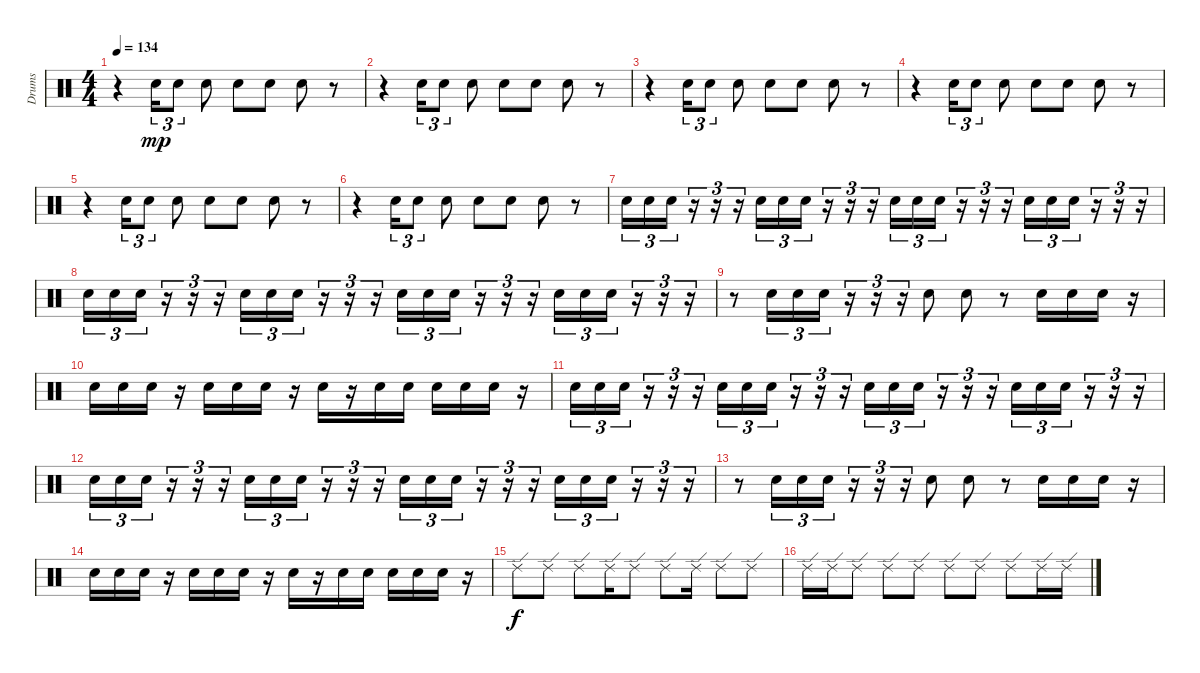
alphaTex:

\track ("Drums" "Drums") {instrument percussion}
\staff {score}
\articulation defaults
\ts (4 4)
\tempo 134
\clef neutral
\ks c
r.4{dy mp} "Snare (hit) 2".16{tu (3 2)} "Snare (hit) 2".8{tu (3 2)} "Snare (hit) 2".8 "Snare (hit) 2".8 "Snare (hit) 2".8 "Snare (hit) 2".8 r.8 |
r.4 "Snare (hit) 2".16{tu (3 2)} "Snare (hit) 2".8{tu (3 2)} "Snare (hit) 2".8 "Snare (hit) 2".8 "Snare (hit) 2".8 "Snare (hit) 2".8 r.8 |
r.4 "Snare (hit) 2".16{tu (3 2)} "Snare (hit) 2".8{tu (3 2)} "Snare (hit) 2".8 "Snare (hit) 2".8 "Snare (hit) 2".8 "Snare (hit) 2".8 r.8 |
r.4 "Snare (hit) 2".16{tu (3 2)} "Snare (hit) 2".8{tu (3 2)} "Snare (hit) 2".8 "Snare (hit) 2".8 "Snare (hit) 2".8 "Snare (hit) 2".8 r.8 |
r.4 "Snare (hit) 2".16{tu (3 2)} "Snare (hit) 2".8{tu (3 2)} "Snare (hit) 2".8 "Snare (hit) 2".8 "Snare (hit) 2".8 "Snare (hit) 2".8 r.8 |
r.4 "Snare (hit) 2".16{tu (3 2)} "Snare (hit) 2".8{tu (3 2)} "Snare (hit) 2".8 "Snare (hit) 2".8 "Snare (hit) 2".8 "Snare (hit) 2".8 r.8 |
"Snare (hit) 2".16{tu (3 2)} "Snare (hit) 2".16{tu (3 2)} "Snare (hit) 2".16{tu (3 2)} r.16{tu (3 2)} r.16{tu (3 2)} r.16{tu (3 2)} "Electric Snare (hit)".16{tu (3 2)} "Electric Snare (hit)".16{tu (3 2)} "Electric Snare (hit)".16{tu (3 2)} r.16{tu (3 2)} r.16{tu (3 2)} r.16{tu (3 2)} "Snare (hit) 2".16{tu (3 2)} "Snare (hit) 2".16{tu (3 2)} "Snare (hit) 2".16{tu (3 2)} r.16{tu (3 2)} r.16{tu (3 2)} r.16{tu (3 2)} "Electric Snare (hit)".16{tu (3 2)} "Electric Snare (hit)".16{tu (3 2)} "Electric Snare (hit)".16{tu (3 2)} r.16{tu (3 2)} r.16{tu (3 2)} r.16{tu (3 2)} |
"Snare (hit) 2".16{tu (3 2)} "Snare (hit) 2".16{tu (3 2)} "Snare (hit) 2".16{tu (3 2)} r.16{tu (3 2)} r.16{tu (3 2)} r.16{tu (3 2)} "Electric Snare (hit)".16{tu (3 2)} "Electric Snare (hit)".16{tu (3 2)} "Electric Snare (hit)".16{tu (3 2)} r.16{tu (3 2)} r.16{tu (3 2)} r.16{tu (3 2)} "Snare (hit) 2".16{tu (3 2)} "Snare (hit) 2".16{tu (3 2)} "Snare (hit) 2".16{tu (3 2)} r.16{tu (3 2)} r.16{tu (3 2)} r.16{tu (3 2)} "Electric Snare (hit)".16{tu (3 2)} "Electric Snare (hit)".16{tu (3 2)} "Electric Snare (hit)".16{tu (3 2)} r.16{tu (3 2)} r.16{tu (3 2)} r.16{tu (3 2)} |
r.8 "Snare (hit) 2".16{tu (3 2)} "Snare (hit) 2".16{tu (3 2)} "Snare (hit) 2".16{tu (3 2)} r.16{tu (3 2)} r.16{tu (3 2)} r.16{tu (3 2)} "Snare (hit) 2".8 "Snare (hit) 2".8 r.8 "Snare (hit) 2".16 "Snare (hit) 2".16 "Snare (hit) 2".16 r.16 |
"Snare (hit) 2".16 "Snare (hit) 2".16 "Snare (hit) 2".16 r.16 "Snare (hit) 2".16 "Snare (hit) 2".16 "Snare (hit) 2".16 r.16 "Snare (hit) 2".16 r.16 "Snare (hit) 2".16 "Snare (hit) 2".16 "Snare (hit) 2".16 "Snare (hit) 2".16 "Snare (hit) 2".16 r.16 |
"Snare (hit) 2".16{tu (3 2)} "Snare (hit) 2".16{tu (3 2)} "Snare (hit) 2".16{tu (3 2)} r.16{tu (3 2)} r.16{tu (3 2)} r.16{tu (3 2)} "Electric Snare (hit)".16{tu (3 2)} "Electric Snare (hit)".16{tu (3 2)} "Electric Snare (hit)".16{tu (3 2)} r.16{tu (3 2)} r.16{tu (3 2)} r.16{tu (3 2)} "Snare (hit) 2".16{tu (3 2)} "Snare (hit) 2".16{tu (3 2)} "Snare (hit) 2".16{tu (3 2)} r.16{tu (3 2)} r.16{tu (3 2)} r.16{tu (3 2)} "Electric Snare (hit)".16{tu (3 2)} "Electric Snare (hit)".16{tu (3 2)} "Electric Snare (hit)".16{tu (3 2)} r.16{tu (3 2)} r.16{tu (3 2)} r.16{tu (3 2)} |
"Snare (hit) 2".16{tu (3 2)} "Snare (hit) 2".16{tu (3 2)} "Snare (hit) 2".16{tu (3 2)} r.16{tu (3 2)} r.16{tu (3 2)} r.16{tu (3 2)} "Electric Snare (hit)".16{tu (3 2)} "Electric Snare (hit)".16{tu (3 2)} "Electric Snare (hit)".16{tu (3 2)} r.16{tu (3 2)} r.16{tu (3 2)} r.16{tu (3 2)} "Snare (hit) 2".16{tu (3 2)} "Snare (hit) 2".16{tu (3 2)} "Snare (hit) 2".16{tu (3 2)} r.16{tu (3 2)} r.16{tu (3 2)} r.16{tu (3 2)} "Electric Snare (hit)".16{tu (3 2)} "Electric Snare (hit)".16{tu (3 2)} "Electric Snare (hit)".16{tu (3 2)} r.16{tu (3 2)} r.16{tu (3 2)} r.16{tu (3 2)} |
r.8 "Snare (hit) 2".16{tu (3 2)} "Snare (hit) 2".16{tu (3 2)} "Snare (hit) 2".16{tu (3 2)} r.16{tu (3 2)} r.16{tu (3 2)} r.16{tu (3 2)} "Snare (hit) 2".8 "Snare (hit) 2".8 r.8 "Snare (hit) 2".16 "Snare (hit) 2".16 "Snare (hit) 2".16 r.16 |
"Snare (hit) 2".16 "Snare (hit) 2".16 "Snare (hit) 2".16 r.16 "Snare (hit) 2".16 "Snare (hit) 2".16 "Snare (hit) 2".16 r.16 "Snare (hit) 2".16 r.16 "Snare (hit) 2".16 "Snare (hit) 2".16 "Snare (hit) 2".16 "Snare (hit) 2".16 "Snare (hit) 2".16 r.16 |
"Ride (edge) 2".8{dy f} "Ride (edge) 2".8 "Ride (edge) 2".8 "Ride (edge) 2".16 "Ride (edge) 2".8 "Ride (edge) 2".8 "Ride (edge) 2".16 "Ride (edge) 2".8 "Ride (edge) 2".8 |
"Ride (edge) 2".16 "Ride (edge) 2".16 "Ride (edge) 2".8 "Ride (edge) 2".8 "Ride (edge) 2".8 "Ride (edge) 2".8 "Ride (edge) 2".8 "Ride (edge) 2".8 "Ride (edge) 2".16 "Ride (edge) 2".16
